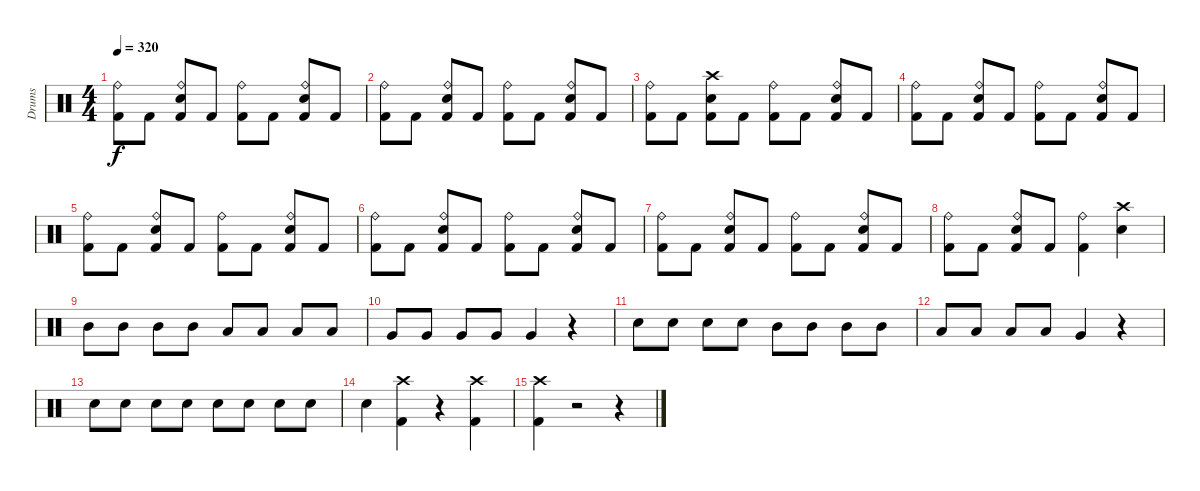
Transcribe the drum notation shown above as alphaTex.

\track ("Drums" "Drums") {instrument percussion}
\staff {score}
\articulation defaults
\ts (4 4)
\tempo 320
\clef neutral
\ks c
("Kick (hit) 2" "Ride (bell)").8{dy f} "Kick (hit) 2".8 ("Kick (hit) 2" "Ride (bell)" "Snare (hit) 2").8 "Kick (hit) 2".8 ("Ride (bell)" "Kick (hit) 2").8 "Kick (hit) 2".8 ("Snare (hit) 2" "Kick (hit) 2" "Ride (bell)").8 "Kick (hit) 2".8 |
("Kick (hit) 2" "Ride (bell)").8 "Kick (hit) 2".8 ("Snare (hit) 2" "Ride (bell)" "Kick (hit) 2").8 "Kick (hit) 2".8 ("Ride (bell)" "Kick (hit) 2").8 "Kick (hit) 2".8 ("Ride (bell)" "Snare (hit) 2" "Kick (hit) 2").8 "Kick (hit) 2".8 |
("Ride (bell)" "Kick (hit) 2").8 "Kick (hit) 2".8 ("Snare (hit) 2" "Crash high (hit)" "Kick (hit) 2").8 "Kick (hit) 2".8 ("Kick (hit) 2" "Ride (bell)").8 "Kick (hit) 2".8 ("Kick (hit) 2" "Ride (bell)" "Snare (hit) 2").8 "Kick (hit) 2".8 |
("Kick (hit) 2" "Ride (bell)").8 "Kick (hit) 2".8 ("Ride (bell)" "Snare (hit) 2" "Kick (hit) 2").8 "Kick (hit) 2".8 ("Ride (bell)" "Kick (hit) 2").8 "Kick (hit) 2".8 ("Kick (hit) 2" "Snare (hit) 2" "Ride (bell)").8 "Kick (hit) 2".8 |
("Ride (bell)" "Kick (hit) 2").8 "Kick (hit) 2".8 ("Snare (hit) 2" "Kick (hit) 2" "Ride (bell)").8 "Kick (hit) 2".8 ("Ride (bell)" "Kick (hit) 2").8 "Kick (hit) 2".8 ("Kick (hit) 2" "Ride (bell)" "Snare (hit) 2").8 "Kick (hit) 2".8 |
("Ride (bell)" "Kick (hit) 2").8 "Kick (hit) 2".8 ("Kick (hit) 2" "Ride (bell)" "Snare (hit) 2").8 "Kick (hit) 2".8 ("Kick (hit) 2" "Ride (bell)").8 "Kick (hit) 2".8 ("Ride (bell)" "Snare (hit) 2" "Kick (hit) 2").8 "Kick (hit) 2".8 |
("Ride (bell)" "Kick (hit) 2").8 "Kick (hit) 2".8 ("Ride (bell)" "Snare (hit) 2" "Kick (hit) 2").8 "Kick (hit) 2".8 ("Kick (hit) 2" "Ride (bell)").8 "Kick (hit) 2".8 ("Kick (hit) 2" "Ride (bell)" "Snare (hit) 2").8 "Kick (hit) 2".8 |
("Ride (bell)" "Kick (hit) 2").8 "Kick (hit) 2".8 ("Snare (hit) 2" "Ride (bell)" "Kick (hit) 2").8 "Kick (hit) 2".8 ("Ride (bell)" "Kick (hit) 2").4 ("Snare (hit) 2" "Crash high (hit)").4 |
"Mid Tom (hit)".8 "Mid Tom (hit)".8 "Mid Tom (hit)".8 "Mid Tom (hit)".8 "Low Tom (hit)".8 "Low Tom (hit)".8 "Low Tom (hit)".8 "Low Tom (hit)".8 |
"Very Low Tom (hit)".8 "Very Low Tom (hit)".8 "Very Low Tom (hit)".8 "Very Low Tom (hit)".8 "Very Low Tom (hit)".4 r.4 |
"Snare (hit) 2".8 "Snare (hit) 2".8 "Snare (hit) 2".8 "Snare (hit) 2".8 "Mid Tom (hit)".8 "Mid Tom (hit)".8 "Mid Tom (hit)".8 "Mid Tom (hit)".8 |
"Low Tom (hit)".8 "Low Tom (hit)".8 "Low Tom (hit)".8 "Low Tom (hit)".8 "Very Low Tom (hit)".4 r.4 |
"Snare (hit) 2".8 "Snare (hit) 2".8 "Snare (hit) 2".8 "Snare (hit) 2".8 "Snare (hit) 2".8 "Snare (hit) 2".8 "Snare (hit) 2".8 "Snare (hit) 2".8 |
"Snare (hit) 2".4 ("Crash high (hit)" "Kick (hit) 2").4 r.4 ("Crash high (hit)" "Kick (hit) 2").4 |
("Crash high (hit)" "Kick (hit) 2").4 r.2 r.4
